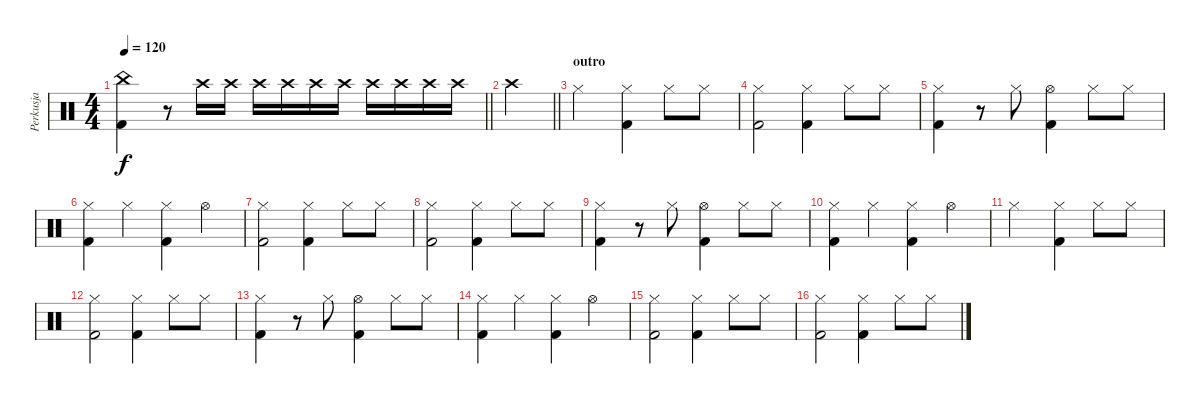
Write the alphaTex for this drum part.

\track ("Perkusja" "Perkusja") {instrument percussion}
\staff {score}
\articulation defaults
\ts (4 4)
\tempo 120
\clef neutral
\barLineRight lightlight
\ks c
("China (hit)" "Kick (hit) 2").4{dy f} r.8 "Crash high (hit)".16 "Crash high (hit)".16 "Crash high (hit)".16 "Crash high (hit)".16 "Crash high (hit)".16 "Crash high (hit)".16 "Crash high (hit)".16 "Crash high (hit)".16 "Crash high (hit)".16 "Crash high (hit)".16 |
\barLineRight lightlight "Crash high (hit)".4
|
\section ("" "outro")
"Hi-Hat (closed)".2 ("Hi-Hat (closed)" "Kick (hit) 2").4 "Hi-Hat (closed)".8 "Hi-Hat (closed)".8 |
("Hi-Hat (closed)" "Kick (hit) 2").2 ("Hi-Hat (closed)" "Kick (hit) 2").4 "Hi-Hat (closed)".8 "Hi-Hat (closed)".8 |
("Hi-Hat (closed)" "Kick (hit) 2").4 r.8 "Hi-Hat (closed)".8 ("Hi-Hat (open)" "Kick (hit) 2").4 "Hi-Hat (closed)".8 "Hi-Hat (closed)".8 |
("Hi-Hat (closed)" "Kick (hit) 2").4 "Hi-Hat (closed)".4 ("Hi-Hat (closed)" "Kick (hit) 2").4 "Hi-Hat (open)".4 |
("Hi-Hat (closed)" "Kick (hit) 2").2 ("Hi-Hat (closed)" "Kick (hit) 2").4 "Hi-Hat (closed)".8 "Hi-Hat (closed)".8 |
("Hi-Hat (closed)" "Kick (hit) 2").2 ("Hi-Hat (closed)" "Kick (hit) 2").4 "Hi-Hat (closed)".8 "Hi-Hat (closed)".8 |
("Hi-Hat (closed)" "Kick (hit) 2").4 r.8 "Hi-Hat (closed)".8 ("Hi-Hat (open)" "Kick (hit) 2").4 "Hi-Hat (closed)".8 "Hi-Hat (closed)".8 |
("Hi-Hat (closed)" "Kick (hit) 2").4 "Hi-Hat (closed)".4 ("Hi-Hat (closed)" "Kick (hit) 2").4 "Hi-Hat (open)".4 |
"Hi-Hat (closed)".2 ("Hi-Hat (closed)" "Kick (hit) 2").4 "Hi-Hat (closed)".8 "Hi-Hat (closed)".8 |
("Hi-Hat (closed)" "Kick (hit) 2").2 ("Hi-Hat (closed)" "Kick (hit) 2").4 "Hi-Hat (closed)".8 "Hi-Hat (closed)".8 |
("Hi-Hat (closed)" "Kick (hit) 2").4 r.8 "Hi-Hat (closed)".8 ("Hi-Hat (open)" "Kick (hit) 2").4 "Hi-Hat (closed)".8 "Hi-Hat (closed)".8 |
("Hi-Hat (closed)" "Kick (hit) 2").4 "Hi-Hat (closed)".4 ("Hi-Hat (closed)" "Kick (hit) 2").4 "Hi-Hat (open)".4 |
("Hi-Hat (closed)" "Kick (hit) 2").2 ("Hi-Hat (closed)" "Kick (hit) 2").4 "Hi-Hat (closed)".8 "Hi-Hat (closed)".8 |
("Hi-Hat (closed)" "Kick (hit) 2").2 ("Hi-Hat (closed)" "Kick (hit) 2").4 "Hi-Hat (closed)".8 "Hi-Hat (closed)".8
